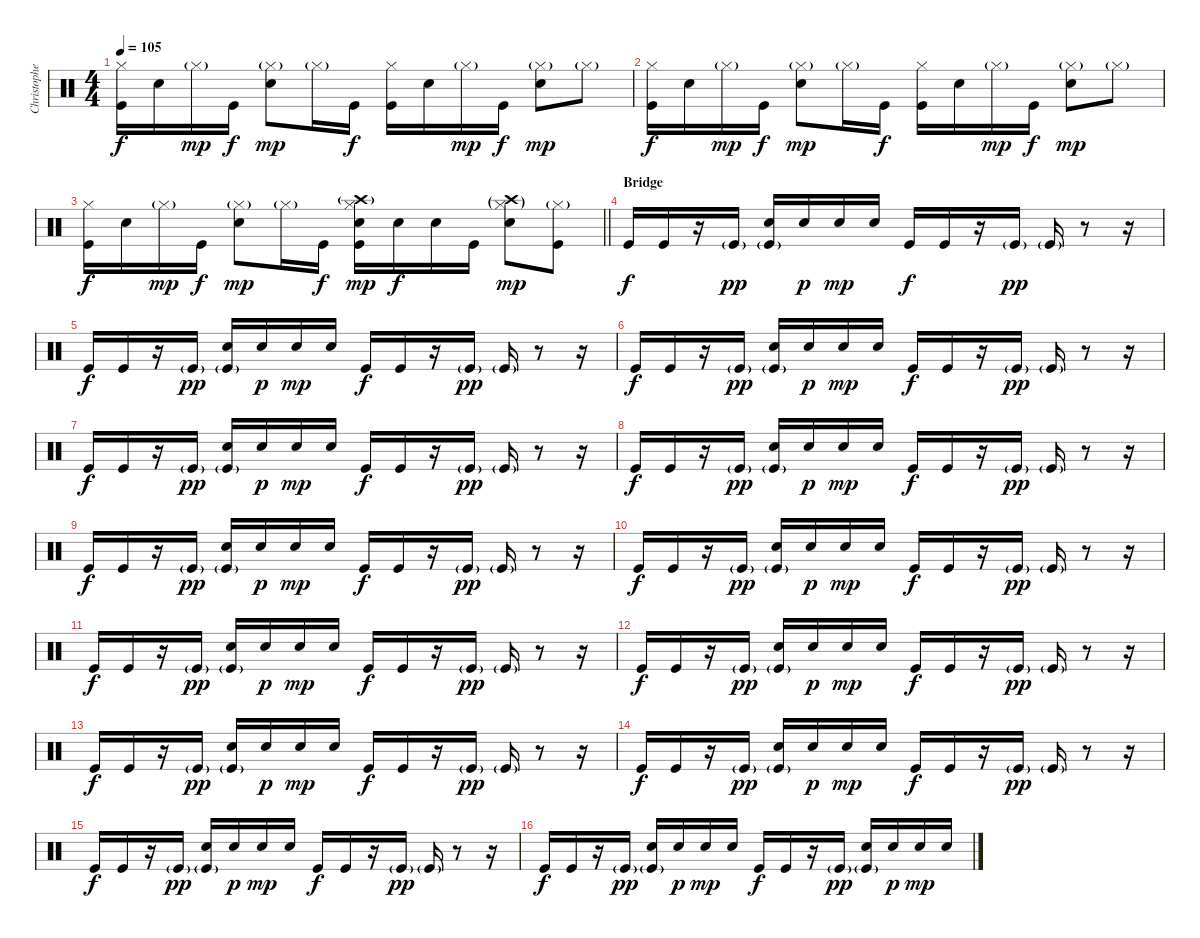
\track ("Christopher - Drums" "Christophe") {instrument percussion}
\staff {score}
\articulation defaults
\ts (4 4)
\tempo 105
\clef neutral
\ks c
("Hi-Hat (closed)" "Kick (hit)").16{dy f} "Snare (hit) 2".16 "Hi-Hat (closed)"{g}.16{dy mp} "Kick (hit)".16{dy f} ("Hi-Hat (closed)"{g} "Snare (hit) 2").8{dy mp} "Hi-Hat (closed)"{g}.16 "Kick (hit)".16{dy f} ("Hi-Hat (closed)" "Kick (hit)").16 "Snare (hit) 2".16 "Hi-Hat (closed)"{g}.16{dy mp} "Kick (hit)".16{dy f} ("Hi-Hat (closed)"{g} "Snare (hit) 2").8{dy mp} "Hi-Hat (closed)"{g}.8 |
("Hi-Hat (closed)" "Kick (hit)").16{dy f} "Snare (hit) 2".16 "Hi-Hat (closed)"{g}.16{dy mp} "Kick (hit)".16{dy f} ("Hi-Hat (closed)"{g} "Snare (hit) 2").8{dy mp} "Hi-Hat (closed)"{g}.16 "Kick (hit)".16{dy f} ("Hi-Hat (closed)" "Kick (hit)").16 "Snare (hit) 2".16 "Hi-Hat (closed)"{g}.16{dy mp} "Kick (hit)".16{dy f} ("Hi-Hat (closed)"{g} "Snare (hit) 2").8{dy mp} "Hi-Hat (closed)"{g}.8 |
\barLineRight lightlight
("Hi-Hat (closed)" "Kick (hit)").16{dy f} "Snare (hit) 2".16 "Hi-Hat (closed)"{g}.16{dy mp} "Kick (hit)".16{dy f} ("Hi-Hat (closed)"{g} "Snare (hit) 2").8{dy mp} "Hi-Hat (closed)"{g}.16 "Kick (hit)".16{dy f} ("Crash high (hit)"{g} "Hi-Hat (closed)" "Snare (hit) 2" "Kick (hit)").16{dy mp} "Snare (hit) 2".16{dy f} "Snare (hit) 2".16 "Kick (hit)".16 ("Crash high (hit)"{g} "Hi-Hat (closed)"{g} "Snare (hit) 2").8{dy mp} ("Hi-Hat (closed)"{g} "Kick (hit)").8 |
\section ("" "Bridge")
"Kick (hit)".16{dy f} "Kick (hit)".16 r.16 "Kick (hit)"{g}.16{dy pp} ("Snare (hit) 2" "Kick (hit)"{g}).16 "Snare (hit) 2".16{dy p} "Snare (hit) 2".16{dy mp} "Snare (hit) 2".16 "Kick (hit)".16{dy f} "Kick (hit)".16 r.16 "Kick (hit)"{g}.16{dy pp} "Kick (hit)"{g}.16 r.8 r.16 |
"Kick (hit)".16{dy f} "Kick (hit)".16 r.16 "Kick (hit)"{g}.16{dy pp} ("Snare (hit) 2" "Kick (hit)"{g}).16 "Snare (hit) 2".16{dy p} "Snare (hit) 2".16{dy mp} "Snare (hit) 2".16 "Kick (hit)".16{dy f} "Kick (hit)".16 r.16 "Kick (hit)"{g}.16{dy pp} "Kick (hit)"{g}.16 r.8 r.16 |
"Kick (hit)".16{dy f} "Kick (hit)".16 r.16 "Kick (hit)"{g}.16{dy pp} ("Snare (hit) 2" "Kick (hit)"{g}).16 "Snare (hit) 2".16{dy p} "Snare (hit) 2".16{dy mp} "Snare (hit) 2".16 "Kick (hit)".16{dy f} "Kick (hit)".16 r.16 "Kick (hit)"{g}.16{dy pp} "Kick (hit)"{g}.16 r.8 r.16 |
"Kick (hit)".16{dy f} "Kick (hit)".16 r.16 "Kick (hit)"{g}.16{dy pp} ("Snare (hit) 2" "Kick (hit)"{g}).16 "Snare (hit) 2".16{dy p} "Snare (hit) 2".16{dy mp} "Snare (hit) 2".16 "Kick (hit)".16{dy f} "Kick (hit)".16 r.16 "Kick (hit)"{g}.16{dy pp} "Kick (hit)"{g}.16 r.8 r.16 |
"Kick (hit)".16{dy f} "Kick (hit)".16 r.16 "Kick (hit)"{g}.16{dy pp} ("Snare (hit) 2" "Kick (hit)"{g}).16 "Snare (hit) 2".16{dy p} "Snare (hit) 2".16{dy mp} "Snare (hit) 2".16 "Kick (hit)".16{dy f} "Kick (hit)".16 r.16 "Kick (hit)"{g}.16{dy pp} "Kick (hit)"{g}.16 r.8 r.16 |
"Kick (hit)".16{dy f} "Kick (hit)".16 r.16 "Kick (hit)"{g}.16{dy pp} ("Snare (hit) 2" "Kick (hit)"{g}).16 "Snare (hit) 2".16{dy p} "Snare (hit) 2".16{dy mp} "Snare (hit) 2".16 "Kick (hit)".16{dy f} "Kick (hit)".16 r.16 "Kick (hit)"{g}.16{dy pp} "Kick (hit)"{g}.16 r.8 r.16 |
"Kick (hit)".16{dy f} "Kick (hit)".16 r.16 "Kick (hit)"{g}.16{dy pp} ("Snare (hit) 2" "Kick (hit)"{g}).16 "Snare (hit) 2".16{dy p} "Snare (hit) 2".16{dy mp} "Snare (hit) 2".16 "Kick (hit)".16{dy f} "Kick (hit)".16 r.16 "Kick (hit)"{g}.16{dy pp} "Kick (hit)"{g}.16 r.8 r.16 |
"Kick (hit)".16{dy f} "Kick (hit)".16 r.16 "Kick (hit)"{g}.16{dy pp} ("Snare (hit) 2" "Kick (hit)"{g}).16 "Snare (hit) 2".16{dy p} "Snare (hit) 2".16{dy mp} "Snare (hit) 2".16 "Kick (hit)".16{dy f} "Kick (hit)".16 r.16 "Kick (hit)"{g}.16{dy pp} "Kick (hit)"{g}.16 r.8 r.16 |
"Kick (hit)".16{dy f} "Kick (hit)".16 r.16 "Kick (hit)"{g}.16{dy pp} ("Snare (hit) 2" "Kick (hit)"{g}).16 "Snare (hit) 2".16{dy p} "Snare (hit) 2".16{dy mp} "Snare (hit) 2".16 "Kick (hit)".16{dy f} "Kick (hit)".16 r.16 "Kick (hit)"{g}.16{dy pp} "Kick (hit)"{g}.16 r.8 r.16 |
"Kick (hit)".16{dy f} "Kick (hit)".16 r.16 "Kick (hit)"{g}.16{dy pp} ("Snare (hit) 2" "Kick (hit)"{g}).16 "Snare (hit) 2".16{dy p} "Snare (hit) 2".16{dy mp} "Snare (hit) 2".16 "Kick (hit)".16{dy f} "Kick (hit)".16 r.16 "Kick (hit)"{g}.16{dy pp} "Kick (hit)"{g}.16 r.8 r.16 |
"Kick (hit)".16{dy f} "Kick (hit)".16 r.16 "Kick (hit)"{g}.16{dy pp} ("Snare (hit) 2" "Kick (hit)"{g}).16 "Snare (hit) 2".16{dy p} "Snare (hit) 2".16{dy mp} "Snare (hit) 2".16 "Kick (hit)".16{dy f} "Kick (hit)".16 r.16 "Kick (hit)"{g}.16{dy pp} "Kick (hit)"{g}.16 r.8 r.16 |
"Kick (hit)".16{dy f} "Kick (hit)".16 r.16 "Kick (hit)"{g}.16{dy pp} ("Snare (hit) 2" "Kick (hit)"{g}).16 "Snare (hit) 2".16{dy p} "Snare (hit) 2".16{dy mp} "Snare (hit) 2".16 "Kick (hit)".16{dy f} "Kick (hit)".16 r.16 "Kick (hit)"{g}.16{dy pp} "Kick (hit)"{g}.16 r.8 r.16 |
"Kick (hit)".16{dy f} "Kick (hit)".16 r.16 "Kick (hit)"{g}.16{dy pp} ("Snare (hit) 2" "Kick (hit)"{g}).16 "Snare (hit) 2".16{dy p} "Snare (hit) 2".16{dy mp} "Snare (hit) 2".16 "Kick (hit)".16{dy f} "Kick (hit)".16 r.16 "Kick (hit)"{g}.16{dy pp} ("Snare (hit) 2" "Kick (hit)"{g}).16 "Snare (hit) 2".16{dy p} "Snare (hit) 2".16{dy mp} "Snare (hit) 2".16
